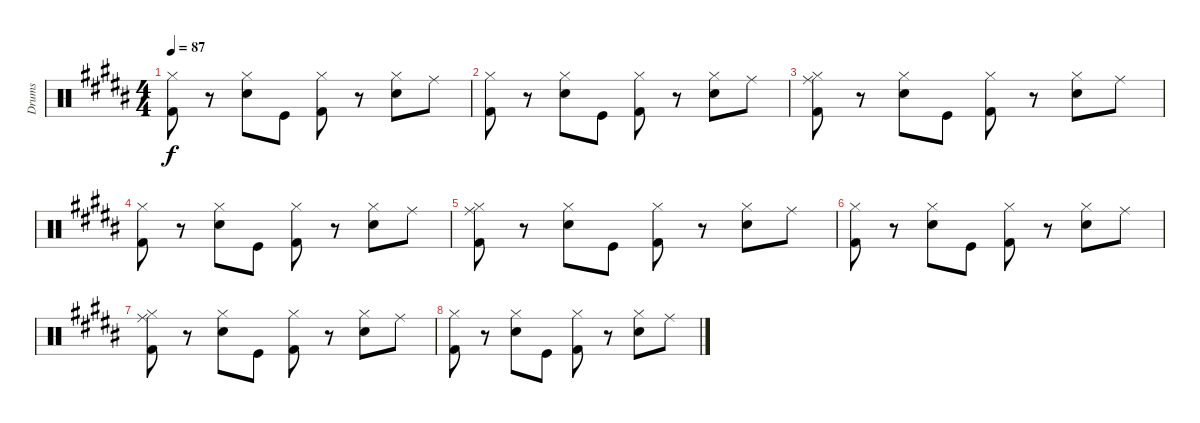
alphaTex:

\track ("Drums" "Drums") {instrument percussion}
\staff {score}
\articulation defaults
\ts (4 4)
\tempo 87
\clef neutral
\ks b
("Hi-Hat (closed)" "Kick (hit) 2").8{dy f} r.8 ("Hi-Hat (closed)" "Snare (hit) 2").8 "Kick (hit)".8 ("Hi-Hat (closed)" "Kick (hit) 2").8 r.8 ("Hi-Hat (closed)" "Snare (hit) 2").8 "Ride (middle)".8 |
("Hi-Hat (closed)" "Kick (hit) 2").8 r.8 ("Hi-Hat (closed)" "Snare (hit) 2").8 "Kick (hit)".8 ("Hi-Hat (closed)" "Kick (hit) 2").8 r.8 ("Hi-Hat (closed)" "Snare (hit) 2").8 "Ride (middle)".8 |
("Hi-Hat (closed)" "Ride (middle)" "Kick (hit) 2").8 r.8 ("Hi-Hat (closed)" "Snare (hit) 2").8 "Kick (hit)".8 ("Hi-Hat (closed)" "Kick (hit) 2").8 r.8 ("Hi-Hat (closed)" "Snare (hit) 2").8 "Ride (middle)".8 |
("Hi-Hat (closed)" "Kick (hit) 2").8 r.8 ("Hi-Hat (closed)" "Snare (hit) 2").8 "Kick (hit)".8 ("Hi-Hat (closed)" "Kick (hit) 2").8 r.8 ("Hi-Hat (closed)" "Snare (hit) 2").8 "Ride (middle)".8 |
("Hi-Hat (closed)" "Ride (middle)" "Kick (hit) 2").8 r.8 ("Hi-Hat (closed)" "Snare (hit) 2").8 "Kick (hit)".8 ("Hi-Hat (closed)" "Kick (hit) 2").8 r.8 ("Hi-Hat (closed)" "Snare (hit) 2").8 "Ride (middle)".8 |
("Hi-Hat (closed)" "Kick (hit) 2").8 r.8 ("Hi-Hat (closed)" "Snare (hit) 2").8 "Kick (hit)".8 ("Hi-Hat (closed)" "Kick (hit) 2").8 r.8 ("Hi-Hat (closed)" "Snare (hit) 2").8 "Ride (middle)".8 |
("Hi-Hat (closed)" "Ride (middle)" "Kick (hit) 2").8 r.8 ("Hi-Hat (closed)" "Snare (hit) 2").8 "Kick (hit)".8 ("Hi-Hat (closed)" "Kick (hit) 2").8 r.8 ("Hi-Hat (closed)" "Snare (hit) 2").8 "Ride (middle)".8 |
("Hi-Hat (closed)" "Kick (hit) 2").8 r.8 ("Hi-Hat (closed)" "Snare (hit) 2").8 "Kick (hit)".8 ("Hi-Hat (closed)" "Kick (hit) 2").8 r.8 ("Hi-Hat (closed)" "Snare (hit) 2").8 "Ride (middle)".8
